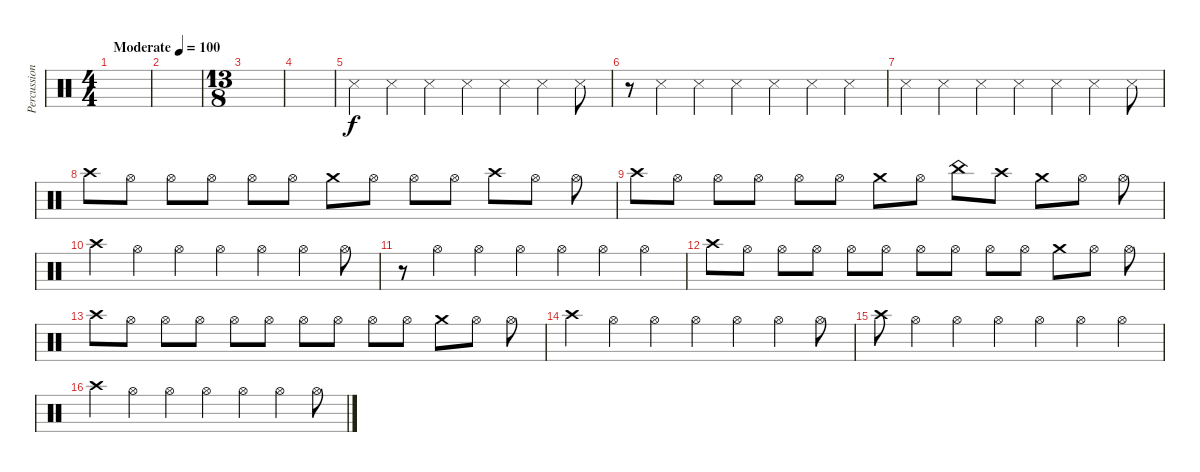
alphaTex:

\track ("Percussion" "Percussion") {instrument percussion}
\staff {score}
\articulation defaults
\ts (4 4)
\tempo (100 "Moderate")
\clef neutral
\ks c
|
|
\ts (13 8)
|
|
"Snare (side stick) 3".4 "Snare (side stick) 3".4 "Snare (side stick) 3".4 "Snare (side stick) 3".4 "Snare (side stick) 3".4 "Snare (side stick) 3".4 "Snare (side stick) 3".8 |
r.8 "Snare (side stick) 3".4 "Snare (side stick) 3".4 "Snare (side stick) 3".4 "Snare (side stick) 3".4 "Snare (side stick) 3".4 "Snare (side stick) 3".4 |
"Snare (side stick) 3".4 "Snare (side stick) 3".4 "Snare (side stick) 3".4 "Snare (side stick) 3".4 "Snare (side stick) 3".4 "Snare (side stick) 3".4 "Snare (side stick) 3".8 |
"Crash high (hit)".8 "Hi-Hat (open)".8 "Hi-Hat (open)".8 "Hi-Hat (open)".8 "Hi-Hat (open)".8 "Hi-Hat (open)".8 "Crash medium (hit)".8 "Hi-Hat (open)".8 "Hi-Hat (open)".8 "Hi-Hat (open)".8 "Crash high (hit)".8 "Hi-Hat (open)".8 "Hi-Hat (open)".8 |
"Crash high (hit)".8 "Hi-Hat (open)".8 "Hi-Hat (open)".8 "Hi-Hat (open)".8 "Hi-Hat (open)".8 "Hi-Hat (open)".8 "Crash medium (hit)".8 "Hi-Hat (open)".8 "China (hit)".8 "Crash high (hit)".8 "Crash medium (hit)".8 "Hi-Hat (open)".8 "Hi-Hat (open)".8 |
"Crash high (hit)".4 "Hi-Hat (open)".4 "Hi-Hat (open)".4 "Hi-Hat (open)".4 "Hi-Hat (open)".4 "Hi-Hat (open)".4 "Hi-Hat (open)".8 |
r.8 "Hi-Hat (open)".4 "Hi-Hat (open)".4 "Hi-Hat (open)".4 "Hi-Hat (open)".4 "Hi-Hat (open)".4 "Hi-Hat (open)".4 |
"Crash high (hit)".8 "Hi-Hat (open)".8 "Hi-Hat (open)".8 "Hi-Hat (open)".8 "Hi-Hat (open)".8 "Hi-Hat (open)".8 "Hi-Hat (open)".8 "Hi-Hat (open)".8 "Hi-Hat (open)".8 "Hi-Hat (open)".8 "Crash medium (hit)".8 "Hi-Hat (open)".8 "Hi-Hat (open)".8 |
"Crash high (hit)".8 "Hi-Hat (open)".8 "Hi-Hat (open)".8 "Hi-Hat (open)".8 "Hi-Hat (open)".8 "Hi-Hat (open)".8 "Hi-Hat (open)".8 "Hi-Hat (open)".8 "Hi-Hat (open)".8 "Hi-Hat (open)".8 "Crash medium (hit)".8 "Hi-Hat (open)".8 "Hi-Hat (open)".8 |
"Crash high (hit)".4 "Hi-Hat (open)".4 "Hi-Hat (open)".4 "Hi-Hat (open)".4 "Hi-Hat (open)".4 "Hi-Hat (open)".4 "Hi-Hat (open)".8 |
"Crash high (hit)".8 "Hi-Hat (open)".4 "Hi-Hat (open)".4 "Hi-Hat (open)".4 "Hi-Hat (open)".4 "Hi-Hat (open)".4 "Hi-Hat (open)".4 |
"Crash high (hit)".4 "Hi-Hat (open)".4 "Hi-Hat (open)".4 "Hi-Hat (open)".4 "Hi-Hat (open)".4 "Hi-Hat (open)".4 "Hi-Hat (open)".8
